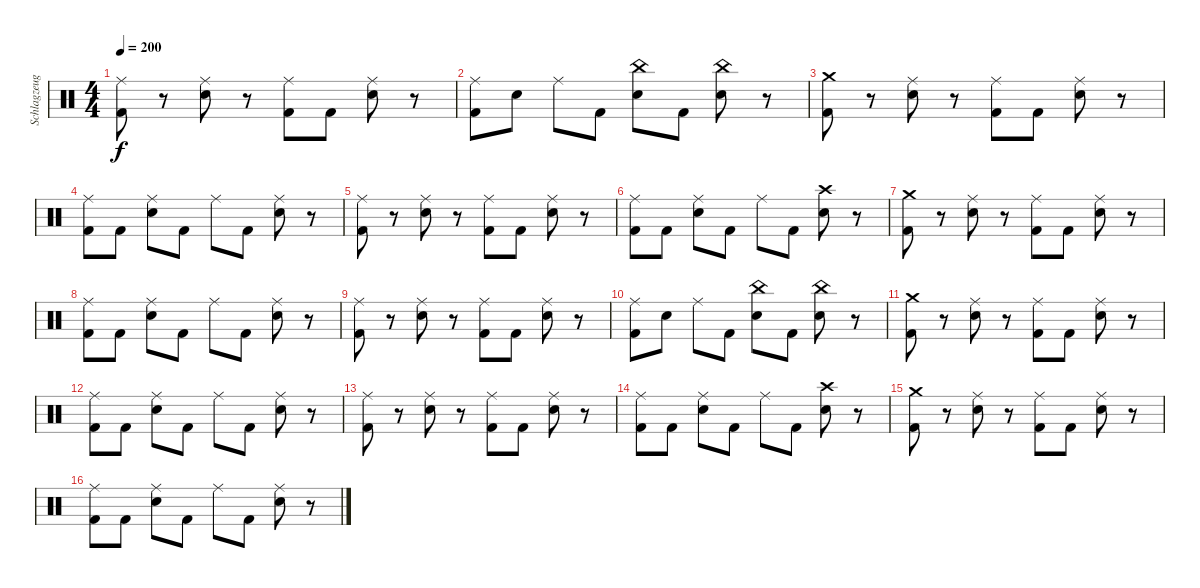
\track ("Schlagzeug" "Schlagzeug") {instrument percussion}
\staff {score}
\articulation defaults
\ts (4 4)
\tempo 200
\clef neutral
\ks c
("Ride (middle)" "Kick (hit) 2").8{dy f} r.8 ("Ride (middle)" "Electric Snare (hit)").8 r.8 ("Ride (middle)" "Kick (hit) 2").8 "Kick (hit) 2".8 ("Ride (middle)" "Electric Snare (hit)").8 r.8 |
("Ride (middle)" "Kick (hit) 2").8 "Electric Snare (hit)".8 "Ride (middle)".8 "Kick (hit) 2".8 ("China (hit)" "Electric Snare (hit)").8 "Kick (hit) 2".8 ("China (hit)" "Electric Snare (hit)").8 r.8 |
("Crash medium (hit)" "Kick (hit) 2").8 r.8 ("Ride (middle)" "Electric Snare (hit)").8 r.8 ("Ride (middle)" "Kick (hit) 2").8 "Kick (hit) 2".8 ("Ride (middle)" "Electric Snare (hit)").8 r.8 |
("Ride (middle)" "Kick (hit) 2").8 "Kick (hit) 2".8 ("Ride (middle)" "Electric Snare (hit)").8 "Kick (hit) 2".8 "Ride (middle)".8 "Kick (hit) 2".8 ("Ride (middle)" "Electric Snare (hit)").8 r.8 |
("Ride (middle)" "Kick (hit) 2").8 r.8 ("Ride (middle)" "Electric Snare (hit)").8 r.8 ("Ride (middle)" "Kick (hit) 2").8 "Kick (hit) 2".8 ("Ride (middle)" "Electric Snare (hit)").8 r.8 |
("Ride (middle)" "Kick (hit) 2").8 "Kick (hit) 2".8 ("Ride (middle)" "Electric Snare (hit)").8 "Kick (hit) 2".8 "Ride (middle)".8 "Kick (hit) 2".8 ("Crash high (hit)" "Electric Snare (hit)").8 r.8 |
("Crash medium (hit)" "Kick (hit) 2").8 r.8 ("Ride (middle)" "Electric Snare (hit)").8 r.8 ("Ride (middle)" "Kick (hit) 2").8 "Kick (hit) 2".8 ("Ride (middle)" "Electric Snare (hit)").8 r.8 |
("Ride (middle)" "Kick (hit) 2").8 "Kick (hit) 2".8 ("Ride (middle)" "Electric Snare (hit)").8 "Kick (hit) 2".8 "Ride (middle)".8 "Kick (hit) 2".8 ("Ride (middle)" "Electric Snare (hit)").8 r.8 |
("Ride (middle)" "Kick (hit) 2").8 r.8 ("Ride (middle)" "Electric Snare (hit)").8 r.8 ("Ride (middle)" "Kick (hit) 2").8 "Kick (hit) 2".8 ("Ride (middle)" "Electric Snare (hit)").8 r.8 |
("Ride (middle)" "Kick (hit) 2").8 "Electric Snare (hit)".8 "Ride (middle)".8 "Kick (hit) 2".8 ("China (hit)" "Electric Snare (hit)").8 "Kick (hit) 2".8 ("China (hit)" "Electric Snare (hit)").8 r.8 |
("Crash medium (hit)" "Kick (hit) 2").8 r.8 ("Ride (middle)" "Electric Snare (hit)").8 r.8 ("Ride (middle)" "Kick (hit) 2").8 "Kick (hit) 2".8 ("Ride (middle)" "Electric Snare (hit)").8 r.8 |
("Ride (middle)" "Kick (hit) 2").8 "Kick (hit) 2".8 ("Ride (middle)" "Electric Snare (hit)").8 "Kick (hit) 2".8 "Ride (middle)".8 "Kick (hit) 2".8 ("Ride (middle)" "Electric Snare (hit)").8 r.8 |
("Ride (middle)" "Kick (hit) 2").8 r.8 ("Ride (middle)" "Electric Snare (hit)").8 r.8 ("Ride (middle)" "Kick (hit) 2").8 "Kick (hit) 2".8 ("Ride (middle)" "Electric Snare (hit)").8 r.8 |
("Ride (middle)" "Kick (hit) 2").8 "Kick (hit) 2".8 ("Ride (middle)" "Electric Snare (hit)").8 "Kick (hit) 2".8 "Ride (middle)".8 "Kick (hit) 2".8 ("Crash high (hit)" "Electric Snare (hit)").8 r.8 |
("Crash medium (hit)" "Kick (hit) 2").8 r.8 ("Ride (middle)" "Electric Snare (hit)").8 r.8 ("Ride (middle)" "Kick (hit) 2").8 "Kick (hit) 2".8 ("Ride (middle)" "Electric Snare (hit)").8 r.8 |
("Ride (middle)" "Kick (hit) 2").8 "Kick (hit) 2".8 ("Ride (middle)" "Electric Snare (hit)").8 "Kick (hit) 2".8 "Ride (middle)".8 "Kick (hit) 2".8 ("Ride (middle)" "Electric Snare (hit)").8 r.8
